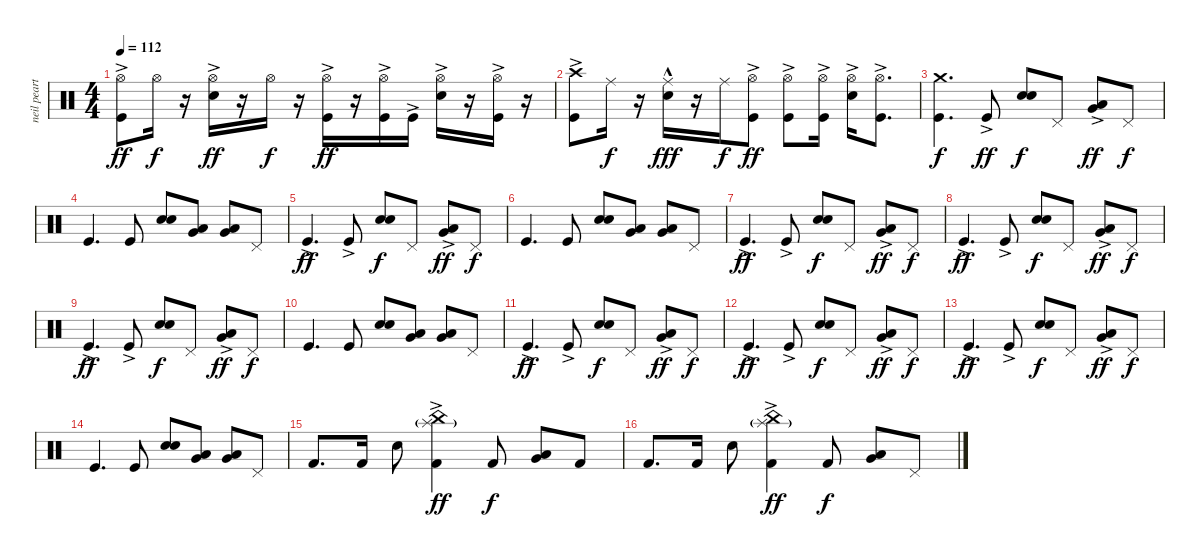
\track ("neil peart" "neil peart") {instrument percussion}
\staff {score}
\articulation defaults
\ts (4 4)
\tempo 112
\clef neutral
\ks c
("Hi-Hat (open)" "Kick (hit)"{ac}).8{dy ff} "Hi-Hat (open)".16{dy f} r.16 ("Hi-Hat (open)" "Electric Snare (hit)"{ac}).16{dy ff} r.16 "Hi-Hat (open)".16{dy f} r.16 ("Hi-Hat (open)" "Kick (hit)"{ac}).16{dy ff} r.16 ("Hi-Hat (open)" "Kick (hit)"{ac}).16 "Kick (hit)"{ac}.16 ("Hi-Hat (open)" "Electric Snare (hit)"{ac}).16 r.16 ("Hi-Hat (open)" "Kick (hit)"{ac}).16 r.16 |
("Crash high (hit)" "Kick (hit)"{ac}).8 "Ride (middle)".16{dy f} r.16 ("Ride (middle)" "Electric Snare (hit)"{hac}).16{dy fff} r.16 "Ride (middle)".16{dy f} ("Hi-Hat (open)" "Kick (hit)"{ac}).8{dy ff} ("Hi-Hat (open)" "Kick (hit)"{ac}).8 ("Hi-Hat (open)" "Kick (hit)"{ac}).16 ("Hi-Hat (open)" "Electric Snare (hit)"{ac}).16 ("Hi-Hat (open)" "Kick (hit)"{ac}).8{d} |
("Crash medium (hit)" "Kick (hit)").4{d dy f} "Kick (hit)"{ac}.8{dy ff} ("Electric Snare (hit)" "Electric Snare (hit)").8{dy f} "Pedal Hi-Hat (hit)".8 ("Low Tom (hit)"{ac} "Very Low Tom (hit)"{ac}).8{dy ff} "Pedal Hi-Hat (hit)".8{dy f} |
"Kick (hit)".4{d} "Kick (hit)".8 ("Electric Snare (hit)" "Electric Snare (hit)").8 ("Low Tom (hit)" "Very Low Tom (hit)").8 ("Very Low Tom (hit)" "Low Floor Tom (hit)").8 "Pedal Hi-Hat (hit)".8 |
"Kick (hit)"{ac}.4{d dy ff} "Kick (hit)"{ac}.8 ("Electric Snare (hit)" "Electric Snare (hit)").8{dy f} "Pedal Hi-Hat (hit)".8 ("Low Tom (hit)"{ac} "Very Low Tom (hit)"{ac}).8{dy ff} "Pedal Hi-Hat (hit)".8{dy f} |
"Kick (hit)".4{d} "Kick (hit)".8 ("Electric Snare (hit)" "Electric Snare (hit)").8 ("Low Tom (hit)" "Very Low Tom (hit)").8 ("Very Low Tom (hit)" "Low Floor Tom (hit)").8 "Pedal Hi-Hat (hit)".8 |
"Kick (hit)"{ac}.4{d dy ff} "Kick (hit)"{ac}.8 ("Electric Snare (hit)" "Electric Snare (hit)").8{dy f} "Pedal Hi-Hat (hit)".8 ("Low Tom (hit)"{ac} "Very Low Tom (hit)"{ac}).8{dy ff} "Pedal Hi-Hat (hit)".8{dy f} |
"Kick (hit)"{ac}.4{d dy ff} "Kick (hit)"{ac}.8 ("Electric Snare (hit)" "Electric Snare (hit)").8{dy f} "Pedal Hi-Hat (hit)".8 ("Low Tom (hit)"{ac} "Very Low Tom (hit)"{ac}).8{dy ff} "Pedal Hi-Hat (hit)".8{dy f} |
"Kick (hit)"{ac}.4{d dy ff} "Kick (hit)"{ac}.8 ("Electric Snare (hit)" "Electric Snare (hit)").8{dy f} "Pedal Hi-Hat (hit)".8 ("Low Tom (hit)"{ac} "Very Low Tom (hit)"{ac}).8{dy ff} "Pedal Hi-Hat (hit)".8{dy f} |
"Kick (hit)".4{d} "Kick (hit)".8 ("Electric Snare (hit)" "Electric Snare (hit)").8 ("Low Tom (hit)" "Very Low Tom (hit)").8 ("Very Low Tom (hit)" "Low Floor Tom (hit)").8 "Pedal Hi-Hat (hit)".8 |
"Kick (hit)"{ac}.4{d dy ff} "Kick (hit)"{ac}.8 ("Electric Snare (hit)" "Electric Snare (hit)").8{dy f} "Pedal Hi-Hat (hit)".8 ("Low Tom (hit)"{ac} "Very Low Tom (hit)"{ac}).8{dy ff} "Pedal Hi-Hat (hit)".8{dy f} |
"Kick (hit)"{ac}.4{d dy ff} "Kick (hit)"{ac}.8 ("Electric Snare (hit)" "Electric Snare (hit)").8{dy f} "Pedal Hi-Hat (hit)".8 ("Low Tom (hit)"{ac} "Very Low Tom (hit)"{ac}).8{dy ff} "Pedal Hi-Hat (hit)".8{dy f} |
"Kick (hit)"{ac}.4{d dy ff} "Kick (hit)"{ac}.8 ("Electric Snare (hit)" "Electric Snare (hit)").8{dy f} "Pedal Hi-Hat (hit)".8 ("Low Tom (hit)"{ac} "Very Low Tom (hit)"{ac}).8{dy ff} "Pedal Hi-Hat (hit)".8{dy f} |
"Kick (hit)".4{d} "Kick (hit)".8 ("Electric Snare (hit)" "Electric Snare (hit)").8 ("Low Tom (hit)" "Very Low Tom (hit)").8 ("Very Low Tom (hit)" "Low Floor Tom (hit)").8 "Pedal Hi-Hat (hit)".8 |
"Kick (hit) 2".8{d} "Kick (hit) 2".16 "Electric Snare (hit)".8 ("Splash (hit)"{g} "China (hit)" "Kick (hit) 2"{ac}).4{dy ff} "Kick (hit) 2".8{dy f} ("Very Low Tom (hit)" "Low Floor Tom (hit)").8 "Kick (hit) 2".8 |
"Kick (hit) 2".8{d} "Kick (hit) 2".16 "Electric Snare (hit)".8 ("Splash (hit)"{g} "China (hit)" "Kick (hit) 2"{ac}).4{dy ff} "Kick (hit) 2".8{dy f} ("Very Low Tom (hit)" "Low Floor Tom (hit)").8 "Pedal Hi-Hat (hit)".8
